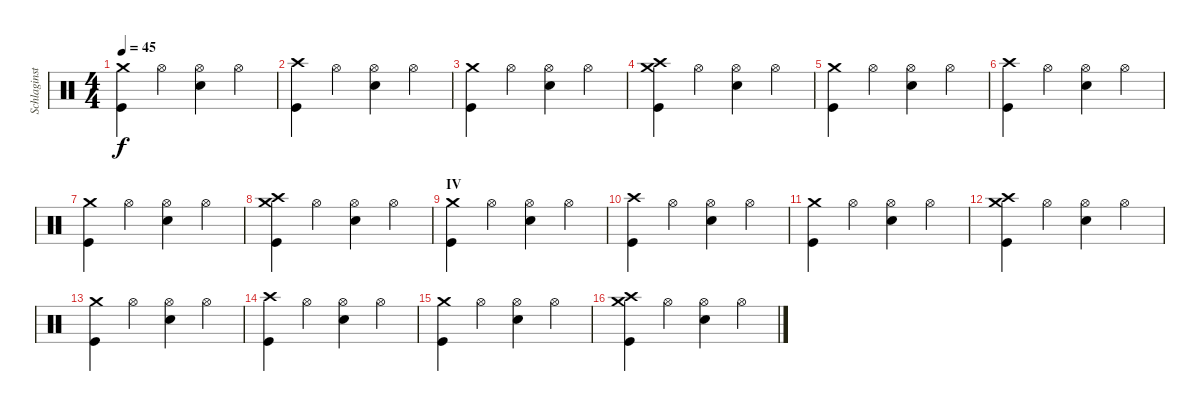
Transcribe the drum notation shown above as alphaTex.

\track ("Schlaginstrumente - Auswahl" "Schlaginst") {instrument percussion}
\staff {score}
\articulation defaults
\ts (4 4)
\tempo 45
\clef neutral
\ks c
("Crash medium (hit)" "Kick (hit)").4{dy f} "Hi-Hat (open)".4 ("Hi-Hat (open)" "Snare (hit) 2").4 "Hi-Hat (open)".4 |
("Crash high (hit)" "Kick (hit)").4 "Hi-Hat (open)".4 ("Hi-Hat (open)" "Snare (hit) 2").4 "Hi-Hat (open)".4 |
("Crash medium (hit)" "Kick (hit)").4 "Hi-Hat (open)".4 ("Hi-Hat (open)" "Snare (hit) 2").4 "Hi-Hat (open)".4 |
("Crash medium (hit)" "Crash high (hit)" "Kick (hit)").4 "Hi-Hat (open)".4 ("Hi-Hat (open)" "Snare (hit) 2").4 "Hi-Hat (open)".4 |
("Crash medium (hit)" "Kick (hit)").4 "Hi-Hat (open)".4 ("Hi-Hat (open)" "Snare (hit) 2").4 "Hi-Hat (open)".4 |
("Crash high (hit)" "Kick (hit)").4 "Hi-Hat (open)".4 ("Hi-Hat (open)" "Snare (hit) 2").4 "Hi-Hat (open)".4 |
("Crash medium (hit)" "Kick (hit)").4 "Hi-Hat (open)".4 ("Hi-Hat (open)" "Snare (hit) 2").4 "Hi-Hat (open)".4 |
("Crash medium (hit)" "Crash high (hit)" "Kick (hit)").4 "Hi-Hat (open)".4 ("Hi-Hat (open)" "Snare (hit) 2").4 "Hi-Hat (open)".4 |
\section ("" "IV")
("Crash medium (hit)" "Kick (hit)").4 "Hi-Hat (open)".4 ("Hi-Hat (open)" "Snare (hit) 2").4 "Hi-Hat (open)".4 |
("Crash high (hit)" "Kick (hit)").4 "Hi-Hat (open)".4 ("Hi-Hat (open)" "Snare (hit) 2").4 "Hi-Hat (open)".4 |
("Crash medium (hit)" "Kick (hit)").4 "Hi-Hat (open)".4 ("Hi-Hat (open)" "Snare (hit) 2").4 "Hi-Hat (open)".4 |
("Crash medium (hit)" "Crash high (hit)" "Kick (hit)").4 "Hi-Hat (open)".4 ("Hi-Hat (open)" "Snare (hit) 2").4 "Hi-Hat (open)".4 |
("Crash medium (hit)" "Kick (hit)").4 "Hi-Hat (open)".4 ("Hi-Hat (open)" "Snare (hit) 2").4 "Hi-Hat (open)".4 |
("Crash high (hit)" "Kick (hit)").4 "Hi-Hat (open)".4 ("Hi-Hat (open)" "Snare (hit) 2").4 "Hi-Hat (open)".4 |
("Crash medium (hit)" "Kick (hit)").4 "Hi-Hat (open)".4 ("Hi-Hat (open)" "Snare (hit) 2").4 "Hi-Hat (open)".4 |
("Crash medium (hit)" "Crash high (hit)" "Kick (hit)").4 "Hi-Hat (open)".4 ("Hi-Hat (open)" "Snare (hit) 2").4 "Hi-Hat (open)".4
